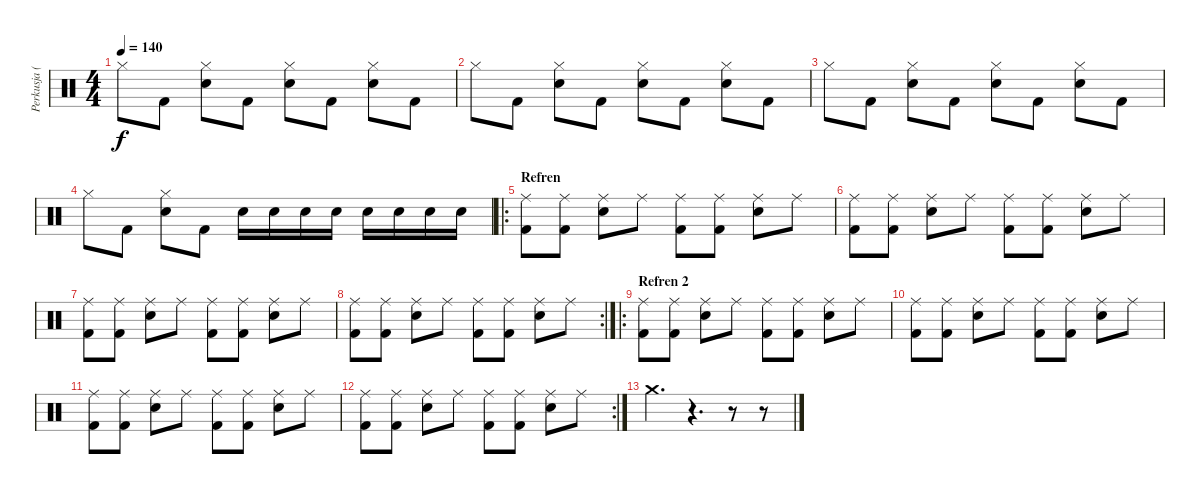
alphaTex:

\track ("Perkusja (Piejo)" "Perkusja (") {instrument percussion}
\staff {score}
\articulation defaults
\ts (4 4)
\tempo 140
\clef neutral
\ks c "Hi-Hat (closed)".8{dy f} "Kick (hit) 2".8
("Hi-Hat (closed)" "Electric Snare (hit)").8 "Kick (hit) 2".8 ("Hi-Hat (closed)" "Electric Snare (hit)").8 "Kick (hit) 2".8 ("Hi-Hat (closed)" "Electric Snare (hit)").8 "Kick (hit) 2".8 |
"Hi-Hat (closed)".8 "Kick (hit) 2".8 ("Hi-Hat (closed)" "Electric Snare (hit)").8 "Kick (hit) 2".8 ("Hi-Hat (closed)" "Electric Snare (hit)").8 "Kick (hit) 2".8 ("Hi-Hat (closed)" "Electric Snare (hit)").8 "Kick (hit) 2".8 |
"Hi-Hat (closed)".8 "Kick (hit) 2".8 ("Hi-Hat (closed)" "Electric Snare (hit)").8 "Kick (hit) 2".8 ("Hi-Hat (closed)" "Electric Snare (hit)").8 "Kick (hit) 2".8 ("Hi-Hat (closed)" "Electric Snare (hit)").8 "Kick (hit) 2".8 |
"Hi-Hat (closed)".8 "Kick (hit) 2".8 ("Hi-Hat (closed)" "Electric Snare (hit)").8 "Kick (hit) 2".8 "Electric Snare (hit)".16 "Electric Snare (hit)".16 "Electric Snare (hit)".16 "Electric Snare (hit)".16 "Electric Snare (hit)".16 "Electric Snare (hit)".16 "Electric Snare (hit)".16 "Electric Snare (hit)".16 |
\ro
\section ("" "Refren")
("Ride (middle)" "Kick (hit) 2").8 ("Ride (middle)" "Kick (hit) 2").8 ("Ride (middle)" "Electric Snare (hit)").8 "Ride (middle)".8 ("Kick (hit) 2" "Ride (middle)").8 ("Ride (middle)" "Kick (hit) 2").8 ("Ride (middle)" "Electric Snare (hit)").8 "Ride (middle)".8 |
("Ride (middle)" "Kick (hit) 2").8 ("Ride (middle)" "Kick (hit) 2").8 ("Ride (middle)" "Electric Snare (hit)").8 "Ride (middle)".8 ("Kick (hit) 2" "Ride (middle)").8 ("Ride (middle)" "Kick (hit) 2").8 ("Ride (middle)" "Electric Snare (hit)").8 "Ride (middle)".8 |
("Ride (middle)" "Kick (hit) 2").8 ("Ride (middle)" "Kick (hit) 2").8 ("Ride (middle)" "Electric Snare (hit)").8 "Ride (middle)".8 ("Kick (hit) 2" "Ride (middle)").8 ("Ride (middle)" "Kick (hit) 2").8 ("Ride (middle)" "Electric Snare (hit)").8 "Ride (middle)".8 |
\rc 2
("Ride (middle)" "Kick (hit) 2").8 ("Ride (middle)" "Kick (hit) 2").8 ("Ride (middle)" "Electric Snare (hit)").8 "Ride (middle)".8 ("Kick (hit) 2" "Ride (middle)").8 ("Ride (middle)" "Kick (hit) 2").8 ("Ride (middle)" "Electric Snare (hit)").8 "Ride (middle)".8 |
\ro
\section ("" "Refren 2")
("Ride (middle)" "Kick (hit) 2").8 ("Ride (middle)" "Kick (hit) 2").8 ("Ride (middle)" "Electric Snare (hit)").8 "Ride (middle)".8 ("Kick (hit) 2" "Ride (middle)").8 ("Ride (middle)" "Kick (hit) 2").8 ("Ride (middle)" "Electric Snare (hit)").8 "Ride (middle)".8 |
("Ride (middle)" "Kick (hit) 2").8 ("Ride (middle)" "Kick (hit) 2").8 ("Ride (middle)" "Electric Snare (hit)").8 "Ride (middle)".8 ("Kick (hit) 2" "Ride (middle)").8 ("Ride (middle)" "Kick (hit) 2").8 ("Ride (middle)" "Electric Snare (hit)").8 "Ride (middle)".8 |
("Ride (middle)" "Kick (hit) 2").8 ("Ride (middle)" "Kick (hit) 2").8 ("Ride (middle)" "Electric Snare (hit)").8 "Ride (middle)".8 ("Kick (hit) 2" "Ride (middle)").8 ("Ride (middle)" "Kick (hit) 2").8 ("Ride (middle)" "Electric Snare (hit)").8 "Ride (middle)".8 |
\rc 2
("Ride (middle)" "Kick (hit) 2").8 ("Ride (middle)" "Kick (hit) 2").8 ("Ride (middle)" "Electric Snare (hit)").8 "Ride (middle)".8 ("Kick (hit) 2" "Ride (middle)").8 ("Ride (middle)" "Kick (hit) 2").8 ("Ride (middle)" "Electric Snare (hit)").8 "Ride (middle)".8 |
"Crash medium (hit)".4{d} r.4{d} r.8 r.8
